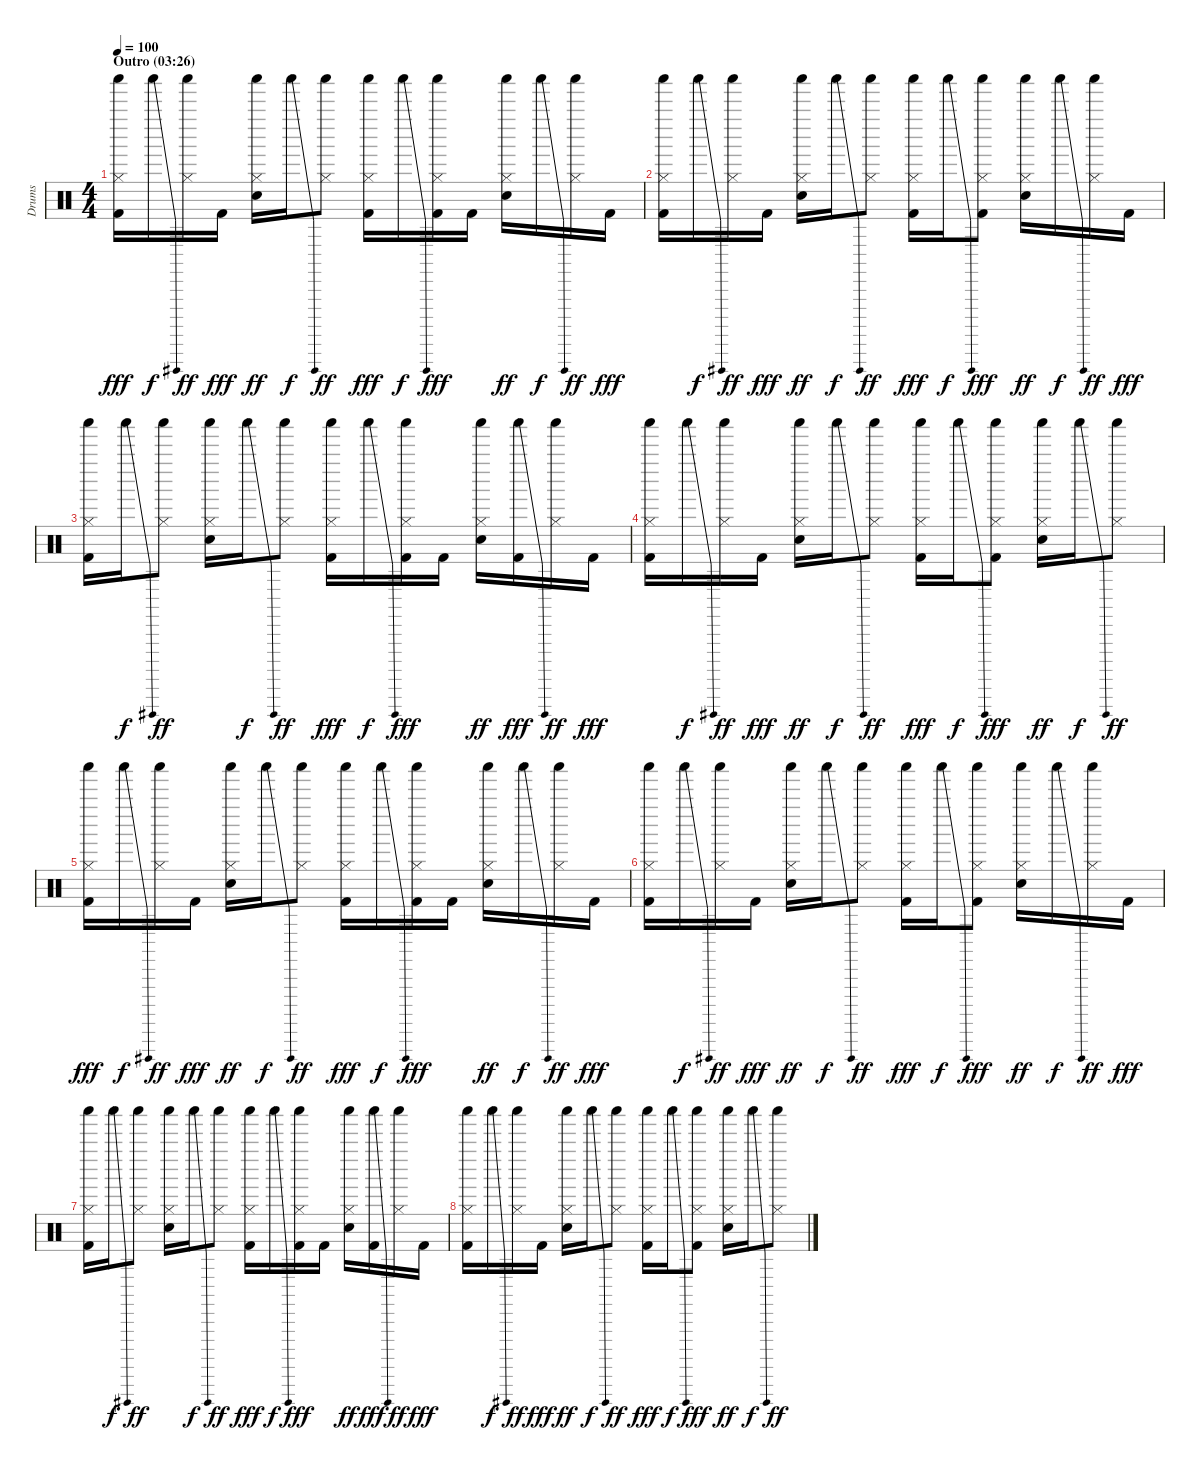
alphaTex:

\track ("Drums" "Drums") {instrument percussion}
\staff {score}
\articulation defaults
\ts (4 4)
\section ("" "Outro (03:26)")
\tempo 100
\clef neutral
\ks c
("Shaker (hit)" "Hi-Hat (closed)" "Kick (hit) 2").16{dy fff} "Shaker (hit)"{be (bend 0 0 60 12)}.16{dy f} ("Shaker (hit)" "Hi-Hat (closed)").16{dy ff} "Kick (hit) 2".16{dy fff} ("Shaker (hit)" "Hi-Hat (closed)" "Electric Snare (hit)").16{dy ff} "Shaker (hit)"{be (bend 0 0 60 12)}.16{dy f} ("Shaker (hit)" "Hi-Hat (closed)").8{dy ff} ("Shaker (hit)" "Hi-Hat (closed)" "Kick (hit) 2").16{dy fff} "Shaker (hit)"{be (bend 0 0 60 12)}.16{dy f} ("Shaker (hit)" "Hi-Hat (closed)" "Kick (hit) 2").16{dy fff} "Kick (hit) 2".16 ("Shaker (hit)" "Hi-Hat (closed)" "Electric Snare (hit)").16{dy ff} "Shaker (hit)"{be (bend 0 0 60 12)}.16{dy f} ("Shaker (hit)" "Hi-Hat (closed)").16{dy ff} "Kick (hit) 2".16{dy fff} |
("Shaker (hit)" "Hi-Hat (closed)" "Kick (hit) 2").16 "Shaker (hit)"{be (bend 0 0 60 12)}.16{dy f} ("Shaker (hit)" "Hi-Hat (closed)").16{dy ff} "Kick (hit) 2".16{dy fff} ("Shaker (hit)" "Hi-Hat (closed)" "Electric Snare (hit)").16{dy ff} "Shaker (hit)"{be (bend 0 0 60 12)}.16{dy f} ("Shaker (hit)" "Hi-Hat (closed)").8{dy ff} ("Shaker (hit)" "Hi-Hat (closed)" "Kick (hit) 2").16{dy fff} "Shaker (hit)"{be (bend 0 0 60 12)}.16{dy f} ("Shaker (hit)" "Hi-Hat (closed)" "Kick (hit) 2").8{dy fff} ("Shaker (hit)" "Hi-Hat (closed)" "Electric Snare (hit)").16{dy ff} "Shaker (hit)"{be (bend 0 0 60 12)}.16{dy f} ("Shaker (hit)" "Hi-Hat (closed)").16{dy ff} "Kick (hit) 2".16{dy fff} |
("Shaker (hit)" "Hi-Hat (closed)" "Kick (hit) 2").16 "Shaker (hit)"{be (bend 0 0 60 12)}.16{dy f} ("Shaker (hit)" "Hi-Hat (closed)").8{dy ff} ("Shaker (hit)" "Hi-Hat (closed)" "Electric Snare (hit)").16 "Shaker (hit)"{be (bend 0 0 60 12)}.16{dy f} ("Shaker (hit)" "Hi-Hat (closed)").8{dy ff} ("Shaker (hit)" "Hi-Hat (closed)" "Kick (hit) 2").16{dy fff} "Shaker (hit)"{be (bend 0 0 60 12)}.16{dy f} ("Shaker (hit)" "Hi-Hat (closed)" "Kick (hit) 2").16{dy fff} "Kick (hit) 2".16 ("Shaker (hit)" "Hi-Hat (closed)" "Electric Snare (hit)").16{dy ff} ("Shaker (hit)"{be (bend 0 0 60 12)} "Kick (hit) 2").16{dy fff} ("Shaker (hit)" "Hi-Hat (closed)").16{dy ff} "Kick (hit) 2".16{dy fff} |
("Shaker (hit)" "Hi-Hat (closed)" "Kick (hit) 2").16 "Shaker (hit)"{be (bend 0 0 60 12)}.16{dy f} ("Shaker (hit)" "Hi-Hat (closed)").16{dy ff} "Kick (hit) 2".16{dy fff} ("Shaker (hit)" "Hi-Hat (closed)" "Electric Snare (hit)").16{dy ff} "Shaker (hit)"{be (bend 0 0 60 12)}.16{dy f} ("Shaker (hit)" "Hi-Hat (closed)").8{dy ff} ("Shaker (hit)" "Hi-Hat (closed)" "Kick (hit) 2").16{dy fff} "Shaker (hit)"{be (bend 0 0 60 12)}.16{dy f} ("Shaker (hit)" "Hi-Hat (closed)" "Kick (hit) 2").8{dy fff} ("Shaker (hit)" "Hi-Hat (closed)" "Electric Snare (hit)").16{dy ff} "Shaker (hit)"{be (bend 0 0 60 12)}.16{dy f} ("Shaker (hit)" "Hi-Hat (closed)").8{dy ff} |
("Shaker (hit)" "Hi-Hat (closed)" "Kick (hit) 2").16{dy fff} "Shaker (hit)"{be (bend 0 0 60 12)}.16{dy f} ("Shaker (hit)" "Hi-Hat (closed)").16{dy ff} "Kick (hit) 2".16{dy fff} ("Shaker (hit)" "Hi-Hat (closed)" "Electric Snare (hit)").16{dy ff} "Shaker (hit)"{be (bend 0 0 60 12)}.16{dy f} ("Shaker (hit)" "Hi-Hat (closed)").8{dy ff} ("Shaker (hit)" "Hi-Hat (closed)" "Kick (hit) 2").16{dy fff} "Shaker (hit)"{be (bend 0 0 60 12)}.16{dy f} ("Shaker (hit)" "Hi-Hat (closed)" "Kick (hit) 2").16{dy fff} "Kick (hit) 2".16 ("Shaker (hit)" "Hi-Hat (closed)" "Electric Snare (hit)").16{dy ff} "Shaker (hit)"{be (bend 0 0 60 12)}.16{dy f} ("Shaker (hit)" "Hi-Hat (closed)").16{dy ff} "Kick (hit) 2".16{dy fff} |
("Shaker (hit)" "Hi-Hat (closed)" "Kick (hit) 2").16 "Shaker (hit)"{be (bend 0 0 60 12)}.16{dy f} ("Shaker (hit)" "Hi-Hat (closed)").16{dy ff} "Kick (hit) 2".16{dy fff} ("Shaker (hit)" "Hi-Hat (closed)" "Electric Snare (hit)").16{dy ff} "Shaker (hit)"{be (bend 0 0 60 12)}.16{dy f} ("Shaker (hit)" "Hi-Hat (closed)").8{dy ff} ("Shaker (hit)" "Hi-Hat (closed)" "Kick (hit) 2").16{dy fff} "Shaker (hit)"{be (bend 0 0 60 12)}.16{dy f} ("Shaker (hit)" "Hi-Hat (closed)" "Kick (hit) 2").8{dy fff} ("Shaker (hit)" "Hi-Hat (closed)" "Electric Snare (hit)").16{dy ff} "Shaker (hit)"{be (bend 0 0 60 12)}.16{dy f} ("Shaker (hit)" "Hi-Hat (closed)").16{dy ff} "Kick (hit) 2".16{dy fff} |
("Shaker (hit)" "Hi-Hat (closed)" "Kick (hit) 2").16 "Shaker (hit)"{be (bend 0 0 60 12)}.16{dy f} ("Shaker (hit)" "Hi-Hat (closed)").8{dy ff} ("Shaker (hit)" "Hi-Hat (closed)" "Electric Snare (hit)").16 "Shaker (hit)"{be (bend 0 0 60 12)}.16{dy f} ("Shaker (hit)" "Hi-Hat (closed)").8{dy ff} ("Shaker (hit)" "Hi-Hat (closed)" "Kick (hit) 2").16{dy fff} "Shaker (hit)"{be (bend 0 0 60 12)}.16{dy f} ("Shaker (hit)" "Hi-Hat (closed)" "Kick (hit) 2").16{dy fff} "Kick (hit) 2".16 ("Shaker (hit)" "Hi-Hat (closed)" "Electric Snare (hit)").16{dy ff} ("Shaker (hit)"{be (bend 0 0 60 12)} "Kick (hit) 2").16{dy fff} ("Shaker (hit)" "Hi-Hat (closed)").16{dy ff} "Kick (hit) 2".16{dy fff} |
("Shaker (hit)" "Hi-Hat (closed)" "Kick (hit) 2").16 "Shaker (hit)"{be (bend 0 0 60 12)}.16{dy f} ("Shaker (hit)" "Hi-Hat (closed)").16{dy ff} "Kick (hit) 2".16{dy fff} ("Shaker (hit)" "Hi-Hat (closed)" "Electric Snare (hit)").16{dy ff} "Shaker (hit)"{be (bend 0 0 60 12)}.16{dy f} ("Shaker (hit)" "Hi-Hat (closed)").8{dy ff} ("Shaker (hit)" "Hi-Hat (closed)" "Kick (hit) 2").16{dy fff} "Shaker (hit)"{be (bend 0 0 60 12)}.16{dy f} ("Shaker (hit)" "Hi-Hat (closed)" "Kick (hit) 2").8{dy fff} ("Shaker (hit)" "Hi-Hat (closed)" "Electric Snare (hit)").16{dy ff} "Shaker (hit)"{be (bend 0 0 60 12)}.16{dy f} ("Shaker (hit)" "Hi-Hat (closed)").8{dy ff}
